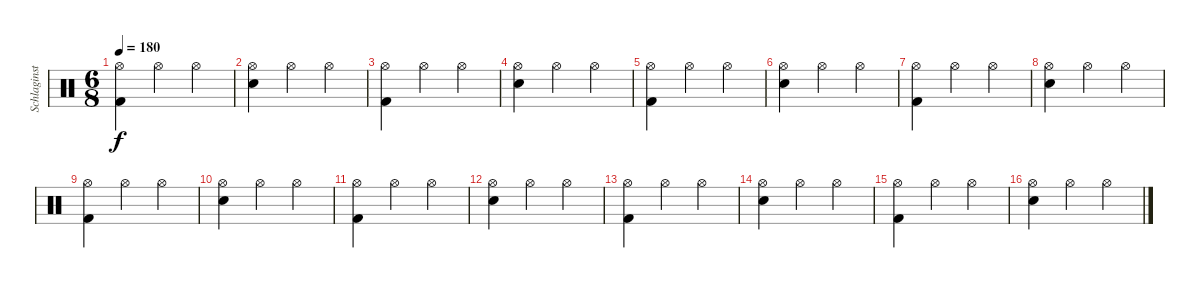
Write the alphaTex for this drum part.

\track ("Schlaginstrumente - Auswahl" "Schlaginst") {instrument percussion}
\staff {score}
\articulation defaults
\ts (6 8)
\tempo 180
\clef neutral
\ks c
("Kick (hit) 2" "Hi-Hat (open)").4{dy f} "Hi-Hat (open)".4 "Hi-Hat (open)".4 |
("Snare (hit) 2" "Hi-Hat (open)").4 "Hi-Hat (open)".4 "Hi-Hat (open)".4 |
("Kick (hit) 2" "Hi-Hat (open)").4 "Hi-Hat (open)".4 "Hi-Hat (open)".4 |
("Snare (hit) 2" "Hi-Hat (open)").4 "Hi-Hat (open)".4 "Hi-Hat (open)".4 |
("Kick (hit) 2" "Hi-Hat (open)").4 "Hi-Hat (open)".4 "Hi-Hat (open)".4 |
("Snare (hit) 2" "Hi-Hat (open)").4 "Hi-Hat (open)".4 "Hi-Hat (open)".4 |
("Kick (hit) 2" "Hi-Hat (open)").4 "Hi-Hat (open)".4 "Hi-Hat (open)".4 |
("Snare (hit) 2" "Hi-Hat (open)").4 "Hi-Hat (open)".4 "Hi-Hat (open)".4 |
("Kick (hit) 2" "Hi-Hat (open)").4 "Hi-Hat (open)".4 "Hi-Hat (open)".4 |
("Snare (hit) 2" "Hi-Hat (open)").4 "Hi-Hat (open)".4 "Hi-Hat (open)".4 |
("Kick (hit) 2" "Hi-Hat (open)").4 "Hi-Hat (open)".4 "Hi-Hat (open)".4 |
("Snare (hit) 2" "Hi-Hat (open)").4 "Hi-Hat (open)".4 "Hi-Hat (open)".4 |
("Kick (hit) 2" "Hi-Hat (open)").4 "Hi-Hat (open)".4 "Hi-Hat (open)".4 |
("Snare (hit) 2" "Hi-Hat (open)").4 "Hi-Hat (open)".4 "Hi-Hat (open)".4 |
("Kick (hit) 2" "Hi-Hat (open)").4 "Hi-Hat (open)".4 "Hi-Hat (open)".4 |
("Snare (hit) 2" "Hi-Hat (open)").4 "Hi-Hat (open)".4 "Hi-Hat (open)".4
